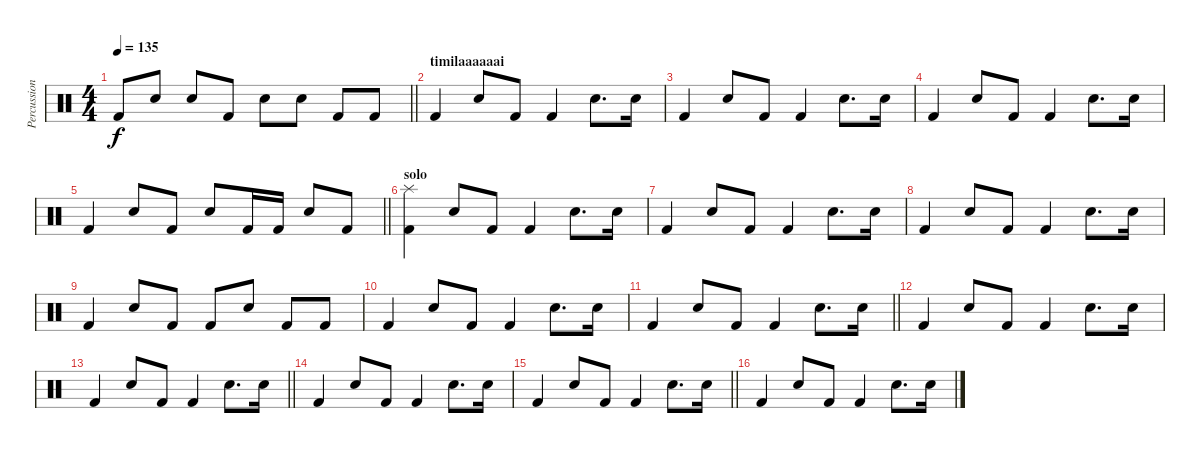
\track ("Percussion" "Percussion") {instrument percussion}
\staff {score}
\articulation defaults
\ts (4 4)
\tempo 135
\clef neutral
\barLineRight lightlight
\ks c "Kick (hit) 2".8{dy f} "Electric Snare (hit)".8 "Electric Snare (hit)".8 "Kick (hit) 2".8 "Electric Snare (hit)".8 "Electric Snare (hit)".8 "Kick (hit) 2".8 "Kick (hit) 2".8
|
\section ("" "timilaaaaaai")
"Kick (hit) 2".4 "Electric Snare (hit)".8 "Kick (hit) 2".8 "Kick (hit) 2".4 "Electric Snare (hit)".8{d} "Snare (hit)".16 |
"Kick (hit) 2".4 "Electric Snare (hit)".8 "Kick (hit) 2".8 "Kick (hit) 2".4 "Electric Snare (hit)".8{d} "Snare (hit)".16 |
"Kick (hit) 2".4 "Electric Snare (hit)".8 "Kick (hit) 2".8 "Kick (hit) 2".4 "Electric Snare (hit)".8{d} "Snare (hit)".16 |
\barLineRight lightlight "Kick (hit) 2".4 "Electric Snare (hit)".8 "Kick (hit) 2".8 "Electric Snare (hit)".8 "Kick (hit) 2".16 "Kick (hit) 2".16 "Electric Snare (hit)".8 "Kick (hit) 2".8
|
\section ("" "solo")
("Splash (hit)" "Kick (hit) 2").4 "Electric Snare (hit)".8 "Kick (hit) 2".8 "Kick (hit) 2".4 "Electric Snare (hit)".8{d} "Snare (hit)".16 |
"Kick (hit) 2".4 "Electric Snare (hit)".8 "Kick (hit) 2".8 "Kick (hit) 2".4 "Electric Snare (hit)".8{d} "Snare (hit)".16 |
"Kick (hit) 2".4 "Electric Snare (hit)".8 "Kick (hit) 2".8 "Kick (hit) 2".4 "Electric Snare (hit)".8{d} "Snare (hit)".16 |
"Kick (hit) 2".4 "Electric Snare (hit)".8 "Kick (hit) 2".8 "Kick (hit) 2".8 "Electric Snare (hit)".8 "Kick (hit) 2".8 "Kick (hit) 2".8 |
"Kick (hit) 2".4 "Electric Snare (hit)".8 "Kick (hit) 2".8 "Kick (hit) 2".4 "Electric Snare (hit)".8{d} "Snare (hit)".16 |
\barLineRight lightlight "Kick (hit) 2".4 "Electric Snare (hit)".8 "Kick (hit) 2".8 "Kick (hit) 2".4 "Electric Snare (hit)".8{d} "Snare (hit)".16
|
"Kick (hit) 2".4 "Electric Snare (hit)".8 "Kick (hit) 2".8 "Kick (hit) 2".4 "Electric Snare (hit)".8{d} "Snare (hit)".16 |
\barLineRight lightlight "Kick (hit) 2".4 "Electric Snare (hit)".8 "Kick (hit) 2".8 "Kick (hit) 2".4 "Electric Snare (hit)".8{d} "Snare (hit)".16
|
"Kick (hit) 2".4 "Electric Snare (hit)".8 "Kick (hit) 2".8 "Kick (hit) 2".4 "Electric Snare (hit)".8{d} "Snare (hit)".16 |
\barLineRight lightlight "Kick (hit) 2".4 "Electric Snare (hit)".8 "Kick (hit) 2".8 "Kick (hit) 2".4 "Electric Snare (hit)".8{d} "Snare (hit)".16
|
"Kick (hit) 2".4 "Electric Snare (hit)".8 "Kick (hit) 2".8 "Kick (hit) 2".4 "Electric Snare (hit)".8{d} "Snare (hit)".16
